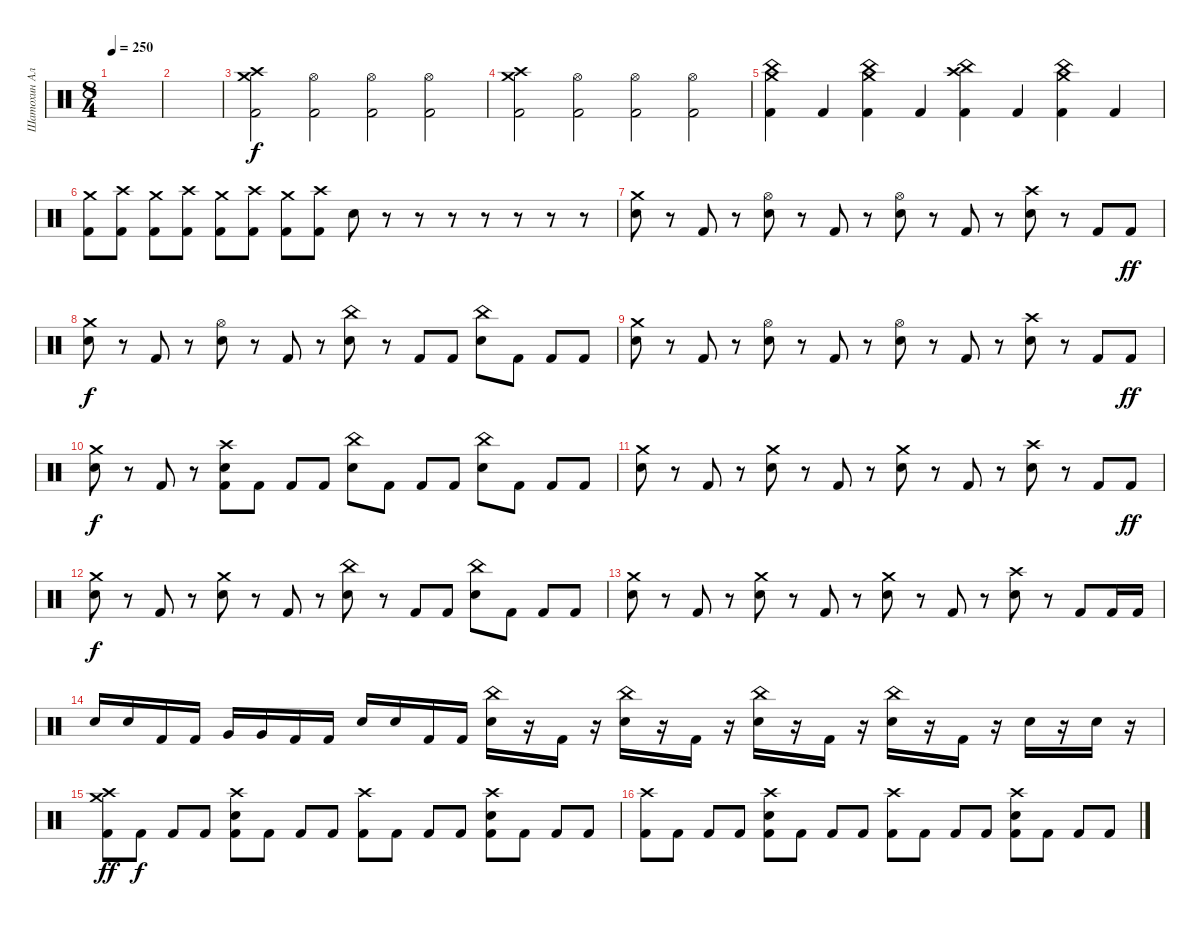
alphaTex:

\track ("Шатохин Алексей" "Шатохин Ал") {instrument percussion}
\staff {score}
\articulation defaults
\ts (8 4)
\tempo 250
\clef neutral
\ks c
|
|
("Crash medium (hit)" "Crash high (hit)" "Kick (hit) 2").2 ("Hi-Hat (open)" "Kick (hit) 2").2 ("Hi-Hat (open)" "Kick (hit) 2").2 ("Hi-Hat (open)" "Kick (hit) 2").2 |
("Crash high (hit)" "Crash medium (hit)" "Kick (hit) 2").2 ("Hi-Hat (open)" "Kick (hit) 2").2 ("Hi-Hat (open)" "Kick (hit) 2").2 ("Hi-Hat (open)" "Kick (hit) 2").2 |
("Crash medium (hit)" "China (hit)" "Kick (hit) 2").4 "Kick (hit) 2".4 ("Crash medium (hit)" "China (hit)" "Kick (hit) 2").4 "Kick (hit) 2".4 ("Crash high (hit)" "China (hit)" "Kick (hit) 2").4 "Kick (hit) 2".4 ("Crash medium (hit)" "China (hit)" "Kick (hit) 2").4 "Kick (hit) 2".4 |
("Crash medium (hit)" "Kick (hit) 2").8 ("Crash high (hit)" "Kick (hit) 2").8 ("Crash medium (hit)" "Kick (hit) 2").8 ("Crash high (hit)" "Kick (hit) 2").8 ("Crash medium (hit)" "Kick (hit) 2").8 ("Crash high (hit)" "Kick (hit) 2").8 ("Crash medium (hit)" "Kick (hit) 2").8 ("Crash high (hit)" "Kick (hit) 2").8 "Electric Snare (hit)".8 r.8 r.8 r.8 r.8 r.8 r.8 r.8 |
("Electric Snare (hit)" "Crash medium (hit)").8 r.8 "Kick (hit) 2".8 r.8 ("Electric Snare (hit)" "Hi-Hat (open)").8 r.8 "Kick (hit) 2".8 r.8 ("Electric Snare (hit)" "Hi-Hat (open)").8 r.8 "Kick (hit) 2".8 r.8 ("Electric Snare (hit)" "Crash high (hit)").8 r.8 "Kick (hit) 2".8 "Kick (hit) 2".8{dy ff} |
("Electric Snare (hit)" "Crash medium (hit)").8{dy f} r.8 "Kick (hit) 2".8 r.8 ("Electric Snare (hit)" "Hi-Hat (open)").8 r.8 "Kick (hit) 2".8 r.8 ("Electric Snare (hit)" "China (hit)").8 r.8 "Kick (hit) 2".8 "Kick (hit) 2".8 ("Electric Snare (hit)" "China (hit)").8 "Kick (hit) 2".8 "Kick (hit) 2".8 "Kick (hit) 2".8 |
("Electric Snare (hit)" "Crash medium (hit)").8 r.8 "Kick (hit) 2".8 r.8 ("Electric Snare (hit)" "Hi-Hat (open)").8 r.8 "Kick (hit) 2".8 r.8 ("Electric Snare (hit)" "Hi-Hat (open)").8 r.8 "Kick (hit) 2".8 r.8 ("Electric Snare (hit)" "Crash high (hit)").8 r.8 "Kick (hit) 2".8 "Kick (hit) 2".8{dy ff} |
("Electric Snare (hit)" "Crash medium (hit)").8{dy f} r.8 "Kick (hit) 2".8 r.8 ("Kick (hit) 2" "Electric Snare (hit)" "Crash high (hit)").8 "Kick (hit) 2".8 "Kick (hit) 2".8 "Kick (hit) 2".8 ("Electric Snare (hit)" "China (hit)").8 "Kick (hit) 2".8 "Kick (hit) 2".8 "Kick (hit) 2".8 ("Electric Snare (hit)" "China (hit)").8 "Kick (hit) 2".8 "Kick (hit) 2".8 "Kick (hit) 2".8 |
("Electric Snare (hit)" "Crash medium (hit)").8 r.8 "Kick (hit) 2".8 r.8 ("Electric Snare (hit)" "Crash medium (hit)").8 r.8 "Kick (hit) 2".8 r.8 ("Electric Snare (hit)" "Crash medium (hit)").8 r.8 "Kick (hit) 2".8 r.8 ("Electric Snare (hit)" "Crash high (hit)").8 r.8 "Kick (hit) 2".8 "Kick (hit) 2".8{dy ff} |
("Electric Snare (hit)" "Crash medium (hit)").8{dy f} r.8 "Kick (hit) 2".8 r.8 ("Electric Snare (hit)" "Crash medium (hit)").8 r.8 "Kick (hit) 2".8 r.8 ("Electric Snare (hit)" "China (hit)").8 r.8 "Kick (hit) 2".8 "Kick (hit) 2".8 ("Electric Snare (hit)" "China (hit)").8 "Kick (hit) 2".8 "Kick (hit) 2".8 "Kick (hit) 2".8 |
("Electric Snare (hit)" "Crash medium (hit)").8 r.8 "Kick (hit) 2".8 r.8 ("Electric Snare (hit)" "Crash medium (hit)").8 r.8 "Kick (hit) 2".8 r.8 ("Electric Snare (hit)" "Crash medium (hit)").8 r.8 "Kick (hit) 2".8 r.8 ("Electric Snare (hit)" "Crash high (hit)").8 r.8 "Kick (hit) 2".8 "Kick (hit) 2".16 "Kick (hit) 2".16 |
"Electric Snare (hit)".16 "Electric Snare (hit)".16 "Kick (hit) 2".16 "Kick (hit) 2".16 "Very Low Tom (hit)".16 "Very Low Tom (hit)".16 "Kick (hit) 2".16 "Kick (hit) 2".16 "Electric Snare (hit)".16 "Electric Snare (hit)".16 "Kick (hit) 2".16 "Kick (hit) 2".16 ("Electric Snare (hit)" "China (hit)").16 r.16 "Kick (hit) 2".16 r.16 ("Electric Snare (hit)" "China (hit)").16 r.16 "Kick (hit) 2".16 r.16 ("Electric Snare (hit)" "China (hit)").16 r.16 "Kick (hit) 2".16 r.16 ("Electric Snare (hit)" "China (hit)").16 r.16 "Kick (hit) 2".16 r.16 "Electric Snare (hit)".16 r.16 "Electric Snare (hit)".16 r.16 |
("Kick (hit) 2" "Crash medium (hit)" "Crash high (hit)").8{dy ff} "Kick (hit) 2".8{dy f} "Kick (hit) 2".8 "Kick (hit) 2".8 ("Kick (hit) 2" "Electric Snare (hit)" "Crash high (hit)").8 "Kick (hit) 2".8 "Kick (hit) 2".8 "Kick (hit) 2".8 ("Kick (hit) 2" "Crash high (hit)").8 "Kick (hit) 2".8 "Kick (hit) 2".8 "Kick (hit) 2".8 ("Kick (hit) 2" "Electric Snare (hit)" "Crash high (hit)").8 "Kick (hit) 2".8 "Kick (hit) 2".8 "Kick (hit) 2".8 |
("Kick (hit) 2" "Crash high (hit)").8 "Kick (hit) 2".8 "Kick (hit) 2".8 "Kick (hit) 2".8 ("Kick (hit) 2" "Electric Snare (hit)" "Crash high (hit)").8 "Kick (hit) 2".8 "Kick (hit) 2".8 "Kick (hit) 2".8 ("Kick (hit) 2" "Crash high (hit)").8 "Kick (hit) 2".8 "Kick (hit) 2".8 "Kick (hit) 2".8 ("Kick (hit) 2" "Electric Snare (hit)" "Crash high (hit)").8 "Kick (hit) 2".8 "Kick (hit) 2".8 "Kick (hit) 2".8
